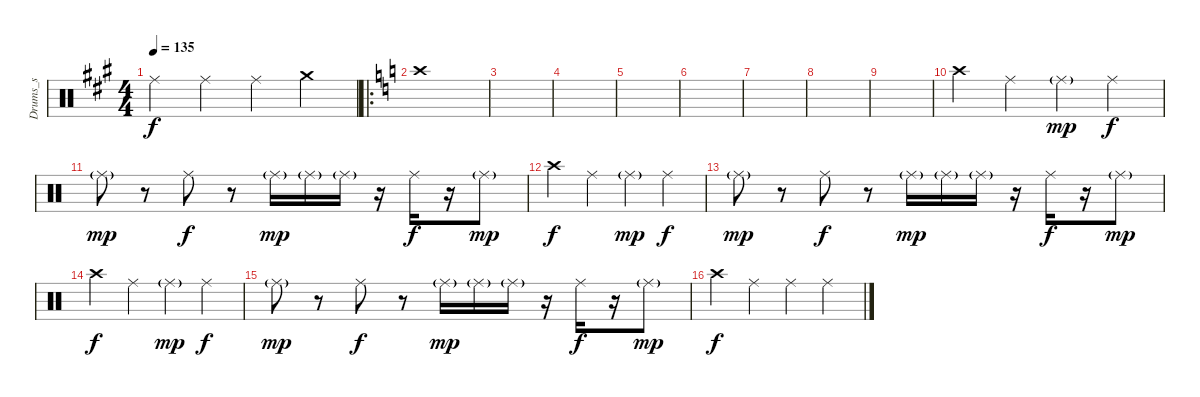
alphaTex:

\track ("Drums_s" "Drums_s") {instrument percussion}
\staff {score}
\articulation defaults
\ts (4 4)
\tempo 135
\clef neutral
\ks a "Ride (middle)".4{dy f} "Ride (middle)".4 "Ride (middle)".4 "Crash medium (hit)".4
|
\ro
\ks c "Crash high (hit)".1
|
|
|
|
|
|
|
|
"Crash high (hit)".4 "Ride (middle)".4 "Ride (middle)"{g}.4{dy mp} "Ride (middle)".4{dy f} |
"Ride (middle)"{g}.8{dy mp} r.8 "Ride (middle)".8{dy f} r.8 "Ride (middle)"{g}.16{dy mp} "Ride (middle)"{g}.16 "Ride (middle)"{g}.16 r.16 "Ride (middle)".16{dy f} r.16 "Ride (middle)"{g}.8{dy mp} |
"Crash high (hit)".4{dy f} "Ride (middle)".4 "Ride (middle)"{g}.4{dy mp} "Ride (middle)".4{dy f} |
"Ride (middle)"{g}.8{dy mp} r.8 "Ride (middle)".8{dy f} r.8 "Ride (middle)"{g}.16{dy mp} "Ride (middle)"{g}.16 "Ride (middle)"{g}.16 r.16 "Ride (middle)".16{dy f} r.16 "Ride (middle)"{g}.8{dy mp} |
"Crash high (hit)".4{dy f} "Ride (middle)".4 "Ride (middle)"{g}.4{dy mp} "Ride (middle)".4{dy f} |
"Ride (middle)"{g}.8{dy mp} r.8 "Ride (middle)".8{dy f} r.8 "Ride (middle)"{g}.16{dy mp} "Ride (middle)"{g}.16 "Ride (middle)"{g}.16 r.16 "Ride (middle)".16{dy f} r.16 "Ride (middle)"{g}.8{dy mp} |
"Crash high (hit)".4{dy f} "Ride (middle)".4 "Ride (middle)".4 "Ride (middle)".4
